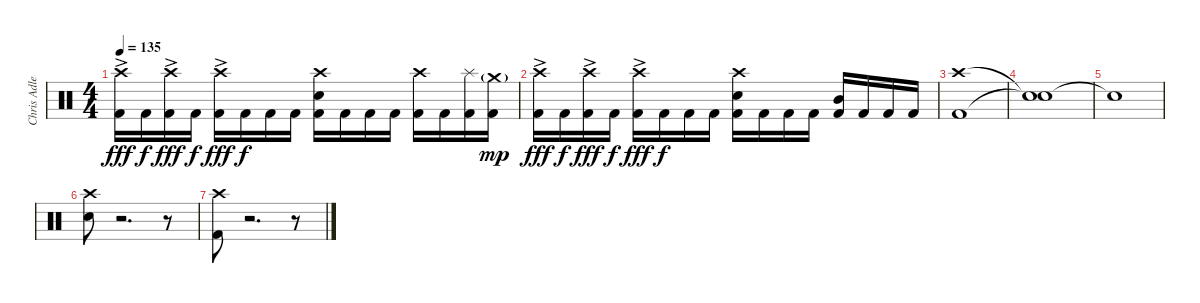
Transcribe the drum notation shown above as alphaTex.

\track ("Chris Adler Drums)" "Chris Adle") {instrument percussion}
\staff {score}
\articulation defaults
\ts (4 4)
\tempo 135
\clef neutral
\ks c
("Crash high (hit)"{ac} "Kick (hit) 2").16{dy fff} "Kick (hit) 2".16{dy f} ("Crash high (hit)"{ac} "Kick (hit) 2").16{dy fff} "Kick (hit) 2".16{dy f} ("Crash high (hit)"{ac} "Kick (hit) 2").16{dy fff} "Kick (hit) 2".16{dy f} "Kick (hit) 2".16 "Kick (hit) 2".16 ("Crash high (hit)" "Snare (hit) 2" "Kick (hit) 2").16 "Kick (hit) 2".16 "Kick (hit) 2".16 "Kick (hit) 2".16 ("Crash high (hit)" "Kick (hit) 2").16 "Kick (hit) 2".16 ("Splash (hit)" "Kick (hit) 2").16 ("Crash medium (hit)"{g} "Kick (hit) 2").16{dy mp} |
("Crash high (hit)"{ac} "Kick (hit) 2").16{dy fff} "Kick (hit) 2".16{dy f} ("Crash high (hit)"{ac} "Kick (hit) 2").16{dy fff} "Kick (hit) 2".16{dy f} ("Crash high (hit)"{ac} "Kick (hit) 2").16{dy fff} "Kick (hit) 2".16{dy f} "Kick (hit) 2".16 "Kick (hit) 2".16 ("Crash high (hit)" "Snare (hit) 2" "Kick (hit) 2").16 "Kick (hit) 2".16 "Kick (hit) 2".16 "Kick (hit) 2".16 ("Mid Tom (hit)" "Kick (hit) 2").16 "Kick (hit) 2".16 "Kick (hit) 2".16 "Kick (hit) 2".16 |
("Crash high (hit)" "Kick (hit) 2").1 |
("Snare (hit)"{t} "Snare (hit)"{t}).1 |
"Snare (hit)"{t}.1 |
("Crash high (hit)" "Electric Snare (hit)").8 r.2{d volume 0} r.8 |
("Crash high (hit)" "Kick (hit) 2").8{volume 16} r.2{d} r.8
